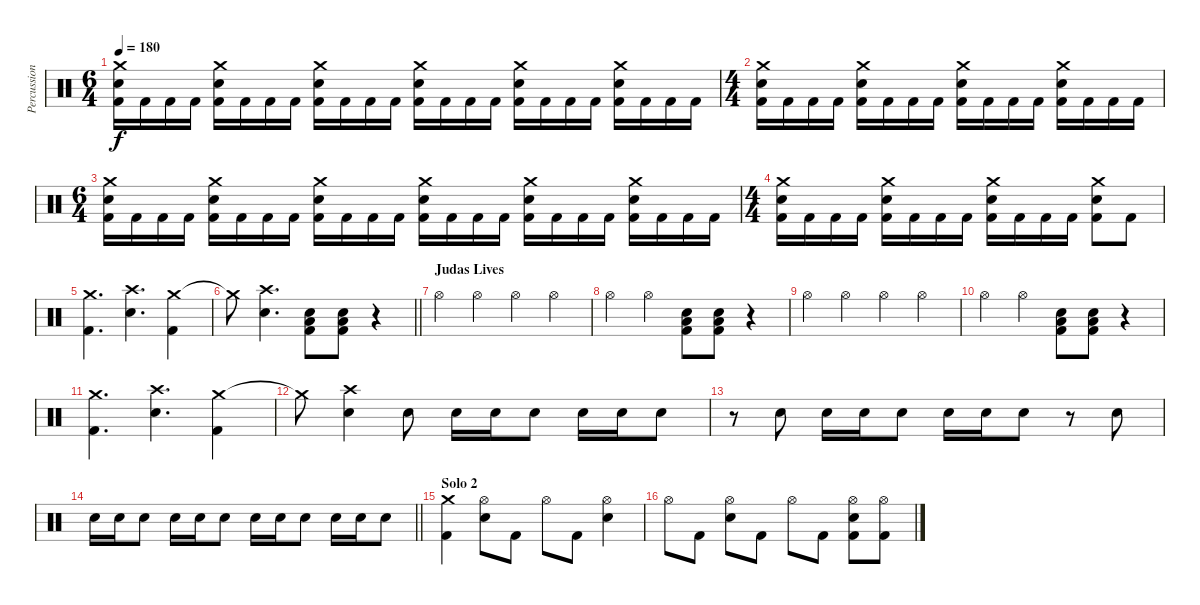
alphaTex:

\track ("Percussion" "Percussion") {instrument percussion}
\staff {score}
\articulation defaults
\ts (6 4)
\tempo 180
\clef neutral
\ks c
("Crash medium (hit)" "Snare (hit) 2" "Kick (hit) 2").16{dy f} "Kick (hit) 2".16 "Kick (hit) 2".16 "Kick (hit) 2".16 ("Crash medium (hit)" "Snare (hit) 2" "Kick (hit) 2").16 "Kick (hit) 2".16 "Kick (hit) 2".16 "Kick (hit) 2".16 ("Crash medium (hit)" "Snare (hit) 2" "Kick (hit) 2").16 "Kick (hit) 2".16 "Kick (hit) 2".16 "Kick (hit) 2".16 ("Crash medium (hit)" "Snare (hit) 2" "Kick (hit) 2").16 "Kick (hit) 2".16 "Kick (hit) 2".16 "Kick (hit) 2".16 ("Crash medium (hit)" "Snare (hit) 2" "Kick (hit) 2").16 "Kick (hit) 2".16 "Kick (hit) 2".16 "Kick (hit) 2".16 ("Crash medium (hit)" "Snare (hit) 2" "Kick (hit) 2").16 "Kick (hit) 2".16 "Kick (hit) 2".16 "Kick (hit) 2".16 |
\ts (4 4)
("Crash medium (hit)" "Snare (hit) 2" "Kick (hit) 2").16 "Kick (hit) 2".16 "Kick (hit) 2".16 "Kick (hit) 2".16 ("Crash medium (hit)" "Snare (hit) 2" "Kick (hit) 2").16 "Kick (hit) 2".16 "Kick (hit) 2".16 "Kick (hit) 2".16 ("Crash medium (hit)" "Snare (hit) 2" "Kick (hit) 2").16 "Kick (hit) 2".16 "Kick (hit) 2".16 "Kick (hit) 2".16 ("Crash medium (hit)" "Snare (hit) 2" "Kick (hit) 2").16 "Kick (hit) 2".16 "Kick (hit) 2".16 "Kick (hit) 2".16 |
\ts (6 4)
("Crash medium (hit)" "Snare (hit) 2" "Kick (hit) 2").16 "Kick (hit) 2".16 "Kick (hit) 2".16 "Kick (hit) 2".16 ("Crash medium (hit)" "Snare (hit) 2" "Kick (hit) 2").16 "Kick (hit) 2".16 "Kick (hit) 2".16 "Kick (hit) 2".16 ("Crash medium (hit)" "Snare (hit) 2" "Kick (hit) 2").16 "Kick (hit) 2".16 "Kick (hit) 2".16 "Kick (hit) 2".16 ("Crash medium (hit)" "Snare (hit) 2" "Kick (hit) 2").16 "Kick (hit) 2".16 "Kick (hit) 2".16 "Kick (hit) 2".16 ("Crash medium (hit)" "Snare (hit) 2" "Kick (hit) 2").16 "Kick (hit) 2".16 "Kick (hit) 2".16 "Kick (hit) 2".16 ("Crash medium (hit)" "Snare (hit) 2" "Kick (hit) 2").16 "Kick (hit) 2".16 "Kick (hit) 2".16 "Kick (hit) 2".16 |
\ts (4 4)
("Crash medium (hit)" "Snare (hit) 2" "Kick (hit) 2").16 "Kick (hit) 2".16 "Kick (hit) 2".16 "Kick (hit) 2".16 ("Crash medium (hit)" "Snare (hit) 2" "Kick (hit) 2").16 "Kick (hit) 2".16 "Kick (hit) 2".16 "Kick (hit) 2".16 ("Crash medium (hit)" "Snare (hit) 2" "Kick (hit) 2").16 "Kick (hit) 2".16 "Kick (hit) 2".16 "Kick (hit) 2".16 ("Crash medium (hit)" "Snare (hit) 2" "Kick (hit) 2").8 "Kick (hit) 2".8 |
("Crash medium (hit)" "Kick (hit) 2").4{d} ("Crash high (hit)" "Snare (hit) 2").4{d} ("Crash medium (hit)" "Kick (hit) 2").4 |
\barLineRight lightlight "Crash medium (hit)"{t}.8
("Crash high (hit)" "Snare (hit) 2").4{d} ("Snare (hit) 2" "Low Floor Tom (hit)" "Kick (hit) 2").8 ("Snare (hit) 2" "Low Floor Tom (hit)" "Kick (hit) 2").8 r.4 |
\section ("" "Judas Lives")
"Hi-Hat (open)".4 "Hi-Hat (open)".4 "Hi-Hat (open)".4 "Hi-Hat (open)".4 |
"Hi-Hat (open)".4 "Hi-Hat (open)".4 ("Snare (hit) 2" "Low Floor Tom (hit)" "Kick (hit) 2").8 ("Snare (hit) 2" "Low Floor Tom (hit)" "Kick (hit) 2").8 r.4 |
"Hi-Hat (open)".4 "Hi-Hat (open)".4 "Hi-Hat (open)".4 "Hi-Hat (open)".4 |
"Hi-Hat (open)".4 "Hi-Hat (open)".4 ("Snare (hit) 2" "Low Floor Tom (hit)" "Kick (hit) 2").8 ("Snare (hit) 2" "Low Floor Tom (hit)" "Kick (hit) 2").8 r.4 |
("Crash medium (hit)" "Kick (hit) 2").4{d} ("Crash high (hit)" "Snare (hit) 2").4{d} ("Crash medium (hit)" "Kick (hit) 2").4 |
"Crash medium (hit)"{t}.8 ("Crash high (hit)" "Snare (hit) 2").4 "Snare (hit) 2".8 "Snare (hit) 2".16 "Snare (hit) 2".16 "Snare (hit) 2".8 "Snare (hit) 2".16 "Snare (hit) 2".16 "Snare (hit) 2".8 |
r.8 "Snare (hit) 2".8 "Snare (hit) 2".16 "Snare (hit) 2".16 "Snare (hit) 2".8 "Snare (hit) 2".16 "Snare (hit) 2".16 "Snare (hit) 2".8 r.8 "Snare (hit) 2".8 |
\barLineRight lightlight "Snare (hit) 2".16 "Snare (hit) 2".16 "Snare (hit) 2".8 "Snare (hit) 2".16 "Snare (hit) 2".16 "Snare (hit) 2".8 "Snare (hit) 2".16 "Snare (hit) 2".16 "Snare (hit) 2".8 "Snare (hit) 2".16 "Snare (hit) 2".16 "Snare (hit) 2".8
|
\section ("" "Solo 2")
("Crash medium (hit)" "Kick (hit) 2").4 ("Hi-Hat (open)" "Snare (hit) 2").8 "Kick (hit) 2".8 "Hi-Hat (open)".8 "Kick (hit) 2".8 ("Hi-Hat (open)" "Snare (hit) 2").4 |
"Hi-Hat (open)".8 "Kick (hit) 2".8 ("Hi-Hat (open)" "Snare (hit) 2").8 "Kick (hit) 2".8 "Hi-Hat (open)".8 "Kick (hit) 2".8 ("Hi-Hat (open)" "Snare (hit) 2" "Kick (hit) 2").8 ("Hi-Hat (open)" "Kick (hit) 2").8
